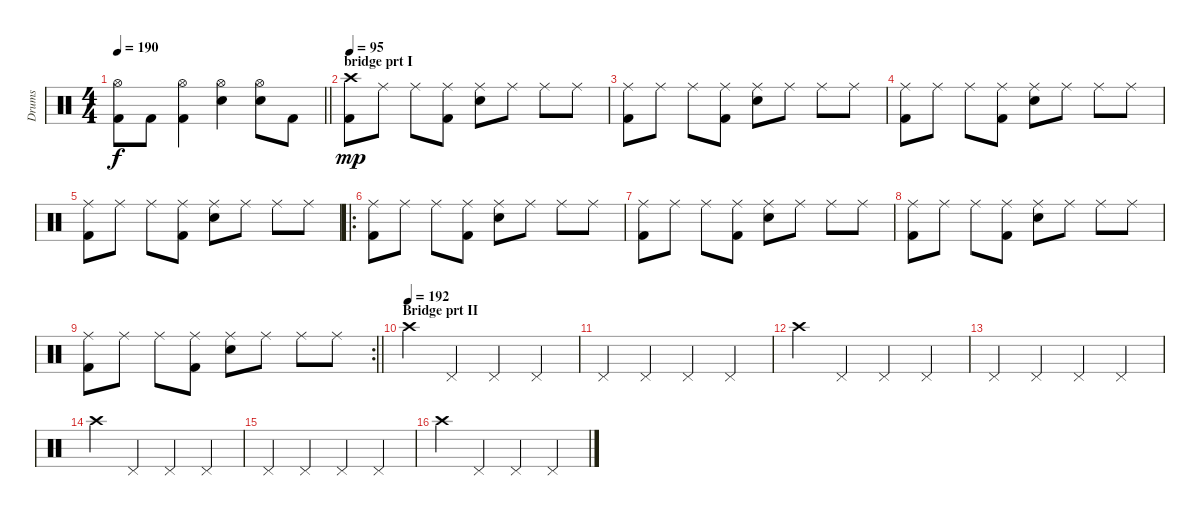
\track ("Drums" "Drums") {instrument percussion}
\staff {score}
\articulation defaults
\ts (4 4)
\tempo 190
\clef neutral
\barLineRight lightlight
\ks c
("Hi-Hat (open)" "Kick (hit) 2").8{dy f} "Kick (hit) 2".8 ("Hi-Hat (open)" "Kick (hit) 2").4 ("Hi-Hat (open)" "Snare (hit) 2").4 ("Hi-Hat (open)" "Snare (hit) 2").8 "Kick (hit) 2".8 |
\section ("" "bridge prt I")
\tempo 95
("Crash high (hit)" "Kick (hit) 2").8{dy mp} "Ride (middle)".8 "Ride (middle)".8 ("Ride (middle)" "Kick (hit) 2").8 ("Ride (middle)" "Snare (hit) 2").8 "Ride (middle)".8 "Ride (middle)".8 "Ride (middle)".8 |
("Ride (middle)" "Kick (hit) 2").8 "Ride (middle)".8 "Ride (middle)".8 ("Ride (middle)" "Kick (hit) 2").8 ("Ride (middle)" "Snare (hit) 2").8 "Ride (middle)".8 "Ride (middle)".8 "Ride (middle)".8 |
("Ride (middle)" "Kick (hit) 2").8 "Ride (middle)".8 "Ride (middle)".8 ("Ride (middle)" "Kick (hit) 2").8 ("Ride (middle)" "Snare (hit) 2").8 "Ride (middle)".8 "Ride (middle)".8 "Ride (middle)".8 |
("Ride (middle)" "Kick (hit) 2").8 "Ride (middle)".8 "Ride (middle)".8 ("Ride (middle)" "Kick (hit) 2").8 ("Ride (middle)" "Snare (hit) 2").8 "Ride (middle)".8 "Ride (middle)".8 "Ride (middle)".8 |
\ro
("Ride (middle)" "Kick (hit) 2").8 "Ride (middle)".8 "Ride (middle)".8 ("Ride (middle)" "Kick (hit) 2").8 ("Ride (middle)" "Snare (hit) 2").8 "Ride (middle)".8 "Ride (middle)".8 "Ride (middle)".8 |
("Ride (middle)" "Kick (hit) 2").8 "Ride (middle)".8 "Ride (middle)".8 ("Ride (middle)" "Kick (hit) 2").8 ("Ride (middle)" "Snare (hit) 2").8 "Ride (middle)".8 "Ride (middle)".8 "Ride (middle)".8 |
("Ride (middle)" "Kick (hit) 2").8 "Ride (middle)".8 "Ride (middle)".8 ("Ride (middle)" "Kick (hit) 2").8 ("Ride (middle)" "Snare (hit) 2").8 "Ride (middle)".8 "Ride (middle)".8 "Ride (middle)".8 |
\rc 2
\barLineRight lightlight
("Ride (middle)" "Kick (hit) 2").8 "Ride (middle)".8 "Ride (middle)".8 ("Ride (middle)" "Kick (hit) 2").8 ("Ride (middle)" "Snare (hit) 2").8 "Ride (middle)".8 "Ride (middle)".8 "Ride (middle)".8 |
\section ("" "Bridge prt II")
\tempo (192)
"Crash high (hit)".4 "Pedal Hi-Hat (hit)".4 "Pedal Hi-Hat (hit)".4 "Pedal Hi-Hat (hit)".4 |
"Pedal Hi-Hat (hit)".4 "Pedal Hi-Hat (hit)".4 "Pedal Hi-Hat (hit)".4 "Pedal Hi-Hat (hit)".4 |
"Crash high (hit)".4 "Pedal Hi-Hat (hit)".4 "Pedal Hi-Hat (hit)".4 "Pedal Hi-Hat (hit)".4 |
"Pedal Hi-Hat (hit)".4 "Pedal Hi-Hat (hit)".4 "Pedal Hi-Hat (hit)".4 "Pedal Hi-Hat (hit)".4 |
"Crash high (hit)".4 "Pedal Hi-Hat (hit)".4 "Pedal Hi-Hat (hit)".4 "Pedal Hi-Hat (hit)".4 |
"Pedal Hi-Hat (hit)".4 "Pedal Hi-Hat (hit)".4 "Pedal Hi-Hat (hit)".4 "Pedal Hi-Hat (hit)".4 |
"Crash high (hit)".4 "Pedal Hi-Hat (hit)".4 "Pedal Hi-Hat (hit)".4 "Pedal Hi-Hat (hit)".4
